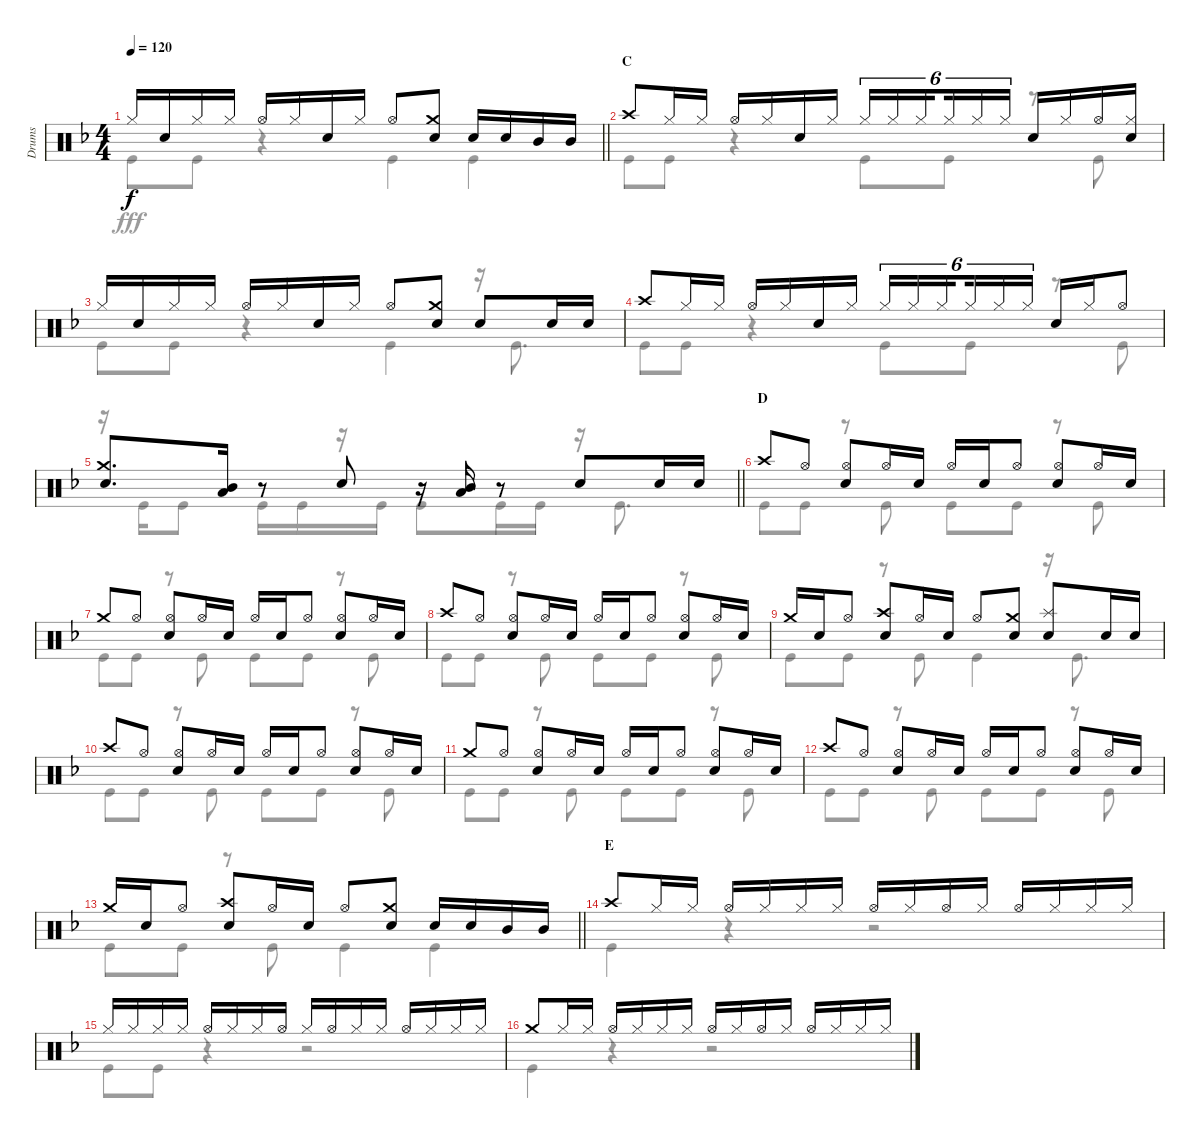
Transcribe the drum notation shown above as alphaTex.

\track ("Drums" "Drums") {instrument percussion}
\staff {score}
\articulation defaults
\voice
\ts (4 4)
\tempo 120
\clef neutral
\barLineRight lightlight
\ks f "Hi-Hat (closed)".16{dy f} "Snare (hit) 2".16 "Hi-Hat (closed)".16 "Hi-Hat (closed)".16 "Hi-Hat (open)".16 "Hi-Hat (closed)".16 "Snare (hit) 2".16 "Hi-Hat (closed)".16 "Hi-Hat (open)".8
("Crash medium (hit)" "Snare (hit) 2").8 "Snare (hit) 2".16 "Snare (hit) 2".16 "Mid Tom (hit)".16 "Mid Tom (hit)".16 |
\section ("" "C")
"Crash high (hit)".8 "Hi-Hat (closed)".16 "Hi-Hat (closed)".16 "Hi-Hat (open)".16 "Hi-Hat (closed)".16 "Snare (hit) 2".16 "Hi-Hat (closed)".16 "Hi-Hat (closed)".16{tu (6 4)} "Hi-Hat (closed)".16{tu (6 4)} "Hi-Hat (closed)".16{tu (6 4) beam splitsecondary} "Hi-Hat (closed)".16{tu (6 4)} "Hi-Hat (closed)".16{tu (6 4)} "Hi-Hat (closed)".16{tu (6 4)} "Snare (hit) 2".16 "Hi-Hat (closed)".16 "Hi-Hat (open)".16 ("Hi-Hat (closed)" "Snare (hit) 2").16 |
"Hi-Hat (closed)".16 "Snare (hit) 2".16 "Hi-Hat (closed)".16 "Hi-Hat (closed)".16 "Hi-Hat (open)".16 "Hi-Hat (closed)".16 "Snare (hit) 2".16 "Hi-Hat (closed)".16 "Hi-Hat (open)".8 ("Crash medium (hit)" "Snare (hit) 2").8 "Snare (hit) 2".8 "Snare (hit) 2".16 "Snare (hit) 2".16 |
"Crash high (hit)".8 "Hi-Hat (closed)".16 "Hi-Hat (closed)".16 "Hi-Hat (open)".16 "Hi-Hat (closed)".16 "Snare (hit) 2".16 "Hi-Hat (closed)".16 "Hi-Hat (closed)".16{tu (6 4)} "Hi-Hat (closed)".16{tu (6 4)} "Hi-Hat (closed)".16{tu (6 4) beam splitsecondary} "Hi-Hat (closed)".16{tu (6 4)} "Hi-Hat (closed)".16{tu (6 4)} "Hi-Hat (closed)".16{tu (6 4)} "Snare (hit) 2".16 "Hi-Hat (closed)".16 "Hi-Hat (open)".8 |
\barLineRight lightlight
("Crash medium (hit)" "Snare (hit) 2").8{d} ("Mid Tom (hit)" "Low Tom (hit)").16 r.8 "Snare (hit) 2".8 r.16 ("Mid Tom (hit)" "Low Tom (hit)").16 r.8 "Snare (hit) 2".8 "Snare (hit) 2".16 "Snare (hit) 2".16 |
\section ("" "D")
"Crash high (hit)".8 "Hi-Hat (open)".8 ("Hi-Hat (open)" "Snare (hit) 2").8 "Hi-Hat (open)".16 "Snare (hit) 2".16 "Hi-Hat (open)".16 "Snare (hit) 2".16 "Hi-Hat (open)".8 ("Hi-Hat (open)" "Snare (hit) 2").8 "Hi-Hat (open)".16 "Snare (hit) 2".16 |
"Crash medium (hit)".8 "Hi-Hat (open)".8 ("Hi-Hat (open)" "Snare (hit) 2").8 "Hi-Hat (open)".16 "Snare (hit) 2".16 "Hi-Hat (open)".16 "Snare (hit) 2".16 "Hi-Hat (open)".8 ("Hi-Hat (open)" "Snare (hit) 2").8 "Hi-Hat (open)".16 "Snare (hit) 2".16 |
"Crash high (hit)".8 "Hi-Hat (open)".8 ("Hi-Hat (open)" "Snare (hit) 2").8 "Hi-Hat (open)".16 "Snare (hit) 2".16 "Hi-Hat (open)".16 "Snare (hit) 2".16 "Hi-Hat (open)".8 ("Hi-Hat (open)" "Snare (hit) 2").8 "Hi-Hat (open)".16 "Snare (hit) 2".16 |
"Crash medium (hit)".16 "Snare (hit) 2".16 "Hi-Hat (open)".8 ("Crash high (hit)" "Snare (hit) 2").8 "Hi-Hat (open)".16 "Snare (hit) 2".16 "Hi-Hat (open)".8 ("Crash medium (hit)" "Snare (hit) 2").8 ("Splash (hit)" "Snare (hit) 2").8 "Snare (hit) 2".16 "Snare (hit) 2".16 |
"Crash high (hit)".8 "Hi-Hat (open)".8 ("Hi-Hat (open)" "Snare (hit) 2").8 "Hi-Hat (open)".16 "Snare (hit) 2".16 "Hi-Hat (open)".16 "Snare (hit) 2".16 "Hi-Hat (open)".8 ("Hi-Hat (open)" "Snare (hit) 2").8 "Hi-Hat (open)".16 "Snare (hit) 2".16 |
"Crash medium (hit)".8 "Hi-Hat (open)".8 ("Hi-Hat (open)" "Snare (hit) 2").8 "Hi-Hat (open)".16 "Snare (hit) 2".16 "Hi-Hat (open)".16 "Snare (hit) 2".16 "Hi-Hat (open)".8 ("Hi-Hat (open)" "Snare (hit) 2").8 "Hi-Hat (open)".16 "Snare (hit) 2".16 |
"Crash high (hit)".8 "Hi-Hat (open)".8 ("Hi-Hat (open)" "Snare (hit) 2").8 "Hi-Hat (open)".16 "Snare (hit) 2".16 "Hi-Hat (open)".16 "Snare (hit) 2".16 "Hi-Hat (open)".8 ("Hi-Hat (open)" "Snare (hit) 2").8 "Hi-Hat (open)".16 "Snare (hit) 2".16 |
\barLineRight lightlight "Crash medium (hit)".16 "Snare (hit) 2".16 "Hi-Hat (open)".8
("Crash high (hit)" "Snare (hit) 2").8 "Hi-Hat (open)".16 "Snare (hit) 2".16 "Hi-Hat (open)".8 ("Crash medium (hit)" "Snare (hit) 2").8 "Snare (hit) 2".16 "Snare (hit) 2".16 "Mid Tom (hit)".16 "Mid Tom (hit)".16 |
\section ("" "E")
"Crash high (hit)".8 "Hi-Hat (closed)".16 "Hi-Hat (closed)".16 "Hi-Hat (open)".16 "Hi-Hat (closed)".16 "Hi-Hat (closed)".16 "Hi-Hat (closed)".16 "Hi-Hat (open)".16 "Hi-Hat (closed)".16 "Hi-Hat (open)".16 "Hi-Hat (closed)".16 "Hi-Hat (open)".16 "Hi-Hat (closed)".16 "Hi-Hat (closed)".16 "Hi-Hat (closed)".16 |
"Hi-Hat (closed)".16 "Hi-Hat (closed)".16 "Hi-Hat (closed)".16 "Hi-Hat (closed)".16 "Hi-Hat (open)".16 "Hi-Hat (closed)".16 "Hi-Hat (closed)".16 "Hi-Hat (open)".16 "Hi-Hat (closed)".16 "Hi-Hat (open)".16 "Hi-Hat (closed)".16 "Hi-Hat (closed)".16 "Hi-Hat (open)".16 "Hi-Hat (closed)".16 "Hi-Hat (closed)".16 "Hi-Hat (closed)".16 |
"Crash medium (hit)".8 "Hi-Hat (closed)".16 "Hi-Hat (closed)".16 "Hi-Hat (open)".16 "Hi-Hat (closed)".16 "Hi-Hat (closed)".16 "Hi-Hat (closed)".16 "Hi-Hat (open)".16 "Hi-Hat (closed)".16 "Hi-Hat (open)".16 "Hi-Hat (closed)".16 "Hi-Hat (open)".16 "Hi-Hat (closed)".16 "Hi-Hat (closed)".16 "Hi-Hat (closed)".16
\voice
\clef neutral
\ottava regular
\simile none
\barLineRight lightlight
\ks f "Kick (hit)".8{dy fff} "Kick (hit)".8
r.4 "Kick (hit)".4 "Kick (hit)".4 |
"Kick (hit)".8 "Kick (hit)".8 r.4 "Kick (hit)".8 "Kick (hit)".8 r.8 "Kick (hit)".8 |
"Kick (hit)".8 "Kick (hit)".8 r.4 "Kick (hit)".4 r.16 "Kick (hit)".8{d} |
"Kick (hit)".8 "Kick (hit)".8 r.4 "Kick (hit)".8 "Kick (hit)".8 r.8 "Kick (hit)".8 |
\barLineRight lightlight
r.16 "Kick (hit)".16 "Kick (hit)".8 "Kick (hit)".16 "Kick (hit)".16 r.16 "Kick (hit)".16 "Kick (hit)".8 "Kick (hit)".16 "Kick (hit)".16 r.16 "Kick (hit)".8{d} |
"Kick (hit)".8 "Kick (hit)".8 r.8 "Kick (hit)".8 "Kick (hit)".8 "Kick (hit)".8 r.8 "Kick (hit)".8 |
"Kick (hit)".8 "Kick (hit)".8 r.8 "Kick (hit)".8 "Kick (hit)".8 "Kick (hit)".8 r.8 "Kick (hit)".8 |
"Kick (hit)".8 "Kick (hit)".8 r.8 "Kick (hit)".8 "Kick (hit)".8 "Kick (hit)".8 r.8 "Kick (hit)".8 |
"Kick (hit)".8 "Kick (hit)".8 r.8 "Kick (hit)".8 "Kick (hit)".4 r.16 "Kick (hit)".8{d} |
"Kick (hit)".8 "Kick (hit)".8 r.8 "Kick (hit)".8 "Kick (hit)".8 "Kick (hit)".8 r.8 "Kick (hit)".8 |
"Kick (hit)".8 "Kick (hit)".8 r.8 "Kick (hit)".8 "Kick (hit)".8 "Kick (hit)".8 r.8 "Kick (hit)".8 |
"Kick (hit)".8 "Kick (hit)".8 r.8 "Kick (hit)".8 "Kick (hit)".8 "Kick (hit)".8 r.8 "Kick (hit)".8 |
\barLineRight lightlight "Kick (hit)".8 "Kick (hit)".8
r.8 "Kick (hit)".8 "Kick (hit)".4 "Kick (hit)".4 |
"Kick (hit)".4 r.4 r.2 |
"Kick (hit)".8 "Kick (hit)".8 r.4 r.2 |
"Kick (hit)".4 r.4 r.2
